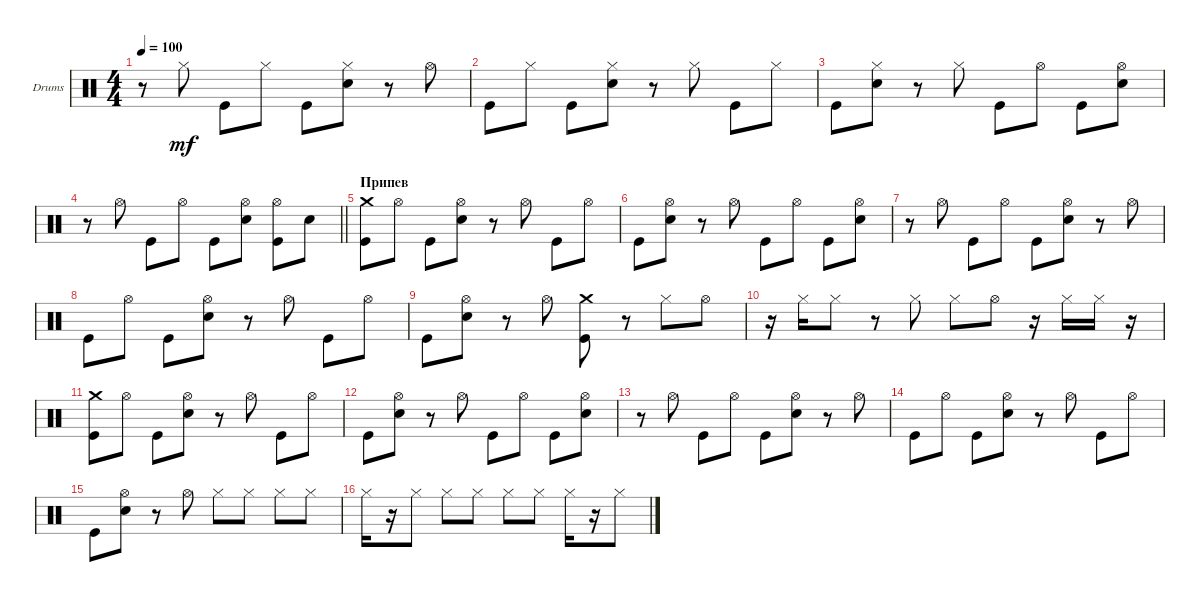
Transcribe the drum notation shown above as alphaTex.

\bracketExtendMode groupsimilarinstruments
\firstSystemTrackNameOrientation horizontal
\otherSystemsTrackNameOrientation horizontal
\track ("Е. Кулаков" "Drums") {instrument percussion}
\staff {score}
\articulation defaults
\ts (4 4)
\tempo 100
\clef neutral
\ks c
r.8{dy mf} "Hi-Hat (closed)".8 "Kick (hit)".8 "Hi-Hat (closed)".8 "Kick (hit)".8 ("Snare (hit) 2" "Hi-Hat (closed)").8 r.8 "Hi-Hat (open)".8 |
"Kick (hit)".8 "Hi-Hat (closed)".8 "Kick (hit)".8 ("Snare (hit) 2" "Hi-Hat (closed)").8 r.8 "Hi-Hat (closed)".8 "Kick (hit)".8 "Hi-Hat (closed)".8 |
"Kick (hit)".8 ("Snare (hit) 2" "Hi-Hat (closed)").8 r.8 "Hi-Hat (closed)".8 "Kick (hit)".8 "Hi-Hat (open)".8 "Kick (hit)".8 ("Snare (hit) 2" "Hi-Hat (open)").8 |
\barLineRight lightlight
r.8 "Hi-Hat (open)".8 "Kick (hit)".8 "Hi-Hat (open)".8 "Kick (hit)".8 ("Snare (hit) 2" "Hi-Hat (open)").8 ("Kick (hit)" "Hi-Hat (open)").8 "Snare (hit) 2".8 |
\section ("" "Припев")
("Kick (hit)" "Crash medium (hit)").8 "Hi-Hat (open)".8 "Kick (hit)".8 ("Snare (hit) 2" "Hi-Hat (open)").8 r.8 "Hi-Hat (open)".8 "Kick (hit)".8 "Hi-Hat (open)".8 |
"Kick (hit)".8 ("Snare (hit) 2" "Hi-Hat (open)").8 r.8 "Hi-Hat (open)".8 "Kick (hit)".8 "Hi-Hat (open)".8 "Kick (hit)".8 ("Snare (hit) 2" "Hi-Hat (open)").8 |
r.8 "Hi-Hat (open)".8 "Kick (hit)".8 "Hi-Hat (open)".8 "Kick (hit)".8 ("Snare (hit) 2" "Hi-Hat (open)").8 r.8 "Hi-Hat (open)".8 |
"Kick (hit)".8 "Hi-Hat (open)".8 "Kick (hit)".8 ("Snare (hit) 2" "Hi-Hat (open)").8 r.8 "Hi-Hat (open)".8 "Kick (hit)".8 "Hi-Hat (open)".8 |
"Kick (hit)".8 ("Snare (hit) 2" "Hi-Hat (open)").8 r.8 "Hi-Hat (open)".8 ("Kick (hit)" "Crash medium (hit)").8 r.8 "Hi-Hat (closed)".8 "Hi-Hat (open)".8 |
r.16 "Hi-Hat (closed)".16 "Hi-Hat (closed)".8 r.8 "Hi-Hat (closed)".8 "Hi-Hat (closed)".8 "Hi-Hat (open)".8 r.16 "Hi-Hat (closed)".16 "Hi-Hat (closed)".16 r.16 |
("Kick (hit)" "Crash medium (hit)").8 "Hi-Hat (open)".8 "Kick (hit)".8 ("Snare (hit) 2" "Hi-Hat (open)").8 r.8 "Hi-Hat (open)".8 "Kick (hit)".8 "Hi-Hat (open)".8 |
"Kick (hit)".8 ("Snare (hit) 2" "Hi-Hat (open)").8 r.8 "Hi-Hat (open)".8 "Kick (hit)".8 "Hi-Hat (open)".8 "Kick (hit)".8 ("Snare (hit) 2" "Hi-Hat (open)").8 |
r.8 "Hi-Hat (open)".8 "Kick (hit)".8 "Hi-Hat (open)".8 "Kick (hit)".8 ("Snare (hit) 2" "Hi-Hat (open)").8 r.8 "Hi-Hat (open)".8 |
"Kick (hit)".8 "Hi-Hat (open)".8 "Kick (hit)".8 ("Snare (hit) 2" "Hi-Hat (open)").8 r.8 "Hi-Hat (open)".8 "Kick (hit)".8 "Hi-Hat (open)".8 |
"Kick (hit)".8 ("Snare (hit) 2" "Hi-Hat (open)").8 r.8 "Hi-Hat (open)".8 "Hi-Hat (closed)".8 "Hi-Hat (closed)".8 "Hi-Hat (closed)".8 "Hi-Hat (closed)".8 |
"Hi-Hat (closed)".16 r.16 "Hi-Hat (closed)".8 "Hi-Hat (closed)".8 "Hi-Hat (closed)".8 "Hi-Hat (closed)".8 "Hi-Hat (closed)".8 "Hi-Hat (closed)".16 r.16 "Hi-Hat (closed)".8
